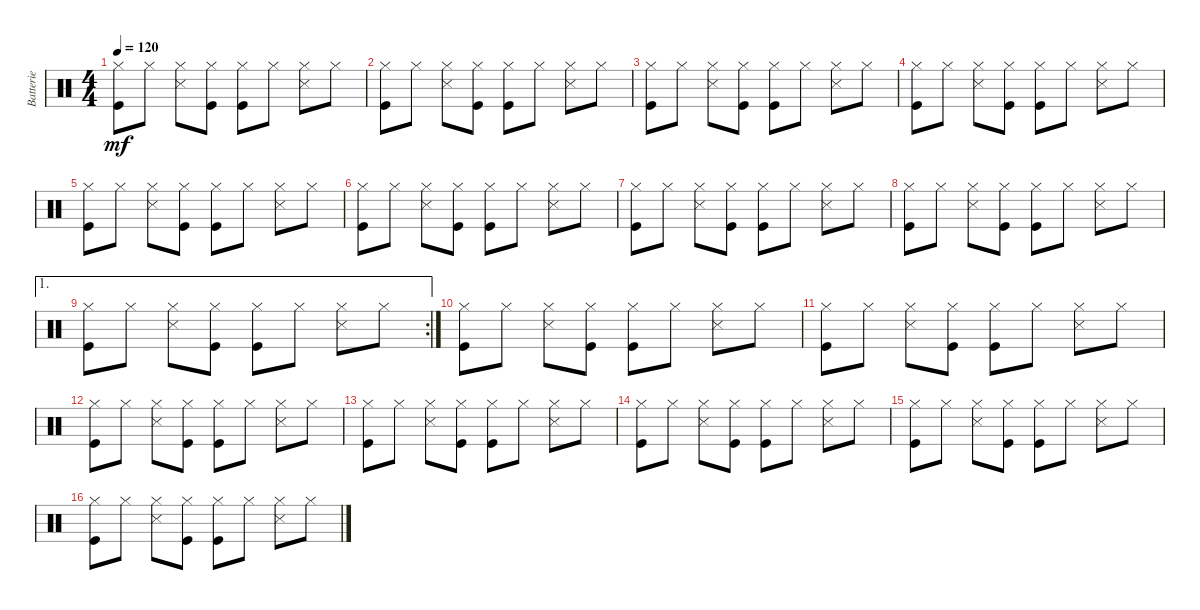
\track ("Batterie" "Batterie") {instrument percussion}
\staff {score}
\articulation defaults
\ts (4 4)
\tempo 120
\clef neutral
\ks c
("Hi-Hat (closed)" "Kick (hit)").8{dy mf} "Hi-Hat (closed)".8 ("Hi-Hat (closed)" "Snare (side stick) 3").8 ("Hi-Hat (closed)" "Kick (hit)").8 ("Hi-Hat (closed)" "Kick (hit)").8 "Hi-Hat (closed)".8 ("Hi-Hat (closed)" "Snare (side stick) 3").8 "Hi-Hat (closed)".8 |
("Hi-Hat (closed)" "Kick (hit)").8 "Hi-Hat (closed)".8 ("Hi-Hat (closed)" "Snare (side stick) 3").8 ("Hi-Hat (closed)" "Kick (hit)").8 ("Hi-Hat (closed)" "Kick (hit)").8 "Hi-Hat (closed)".8 ("Hi-Hat (closed)" "Snare (side stick) 3").8 "Hi-Hat (closed)".8 |
("Hi-Hat (closed)" "Kick (hit)").8 "Hi-Hat (closed)".8 ("Hi-Hat (closed)" "Snare (side stick) 3").8 ("Hi-Hat (closed)" "Kick (hit)").8 ("Hi-Hat (closed)" "Kick (hit)").8 "Hi-Hat (closed)".8 ("Hi-Hat (closed)" "Snare (side stick) 3").8 "Hi-Hat (closed)".8 |
("Hi-Hat (closed)" "Kick (hit)").8 "Hi-Hat (closed)".8 ("Hi-Hat (closed)" "Snare (side stick) 3").8 ("Hi-Hat (closed)" "Kick (hit)").8 ("Hi-Hat (closed)" "Kick (hit)").8 "Hi-Hat (closed)".8 ("Hi-Hat (closed)" "Snare (side stick) 3").8 "Hi-Hat (closed)".8 |
("Hi-Hat (closed)" "Kick (hit)").8 "Hi-Hat (closed)".8 ("Hi-Hat (closed)" "Snare (side stick) 3").8 ("Hi-Hat (closed)" "Kick (hit)").8 ("Hi-Hat (closed)" "Kick (hit)").8 "Hi-Hat (closed)".8 ("Hi-Hat (closed)" "Snare (side stick) 3").8 "Hi-Hat (closed)".8 |
("Hi-Hat (closed)" "Kick (hit)").8 "Hi-Hat (closed)".8 ("Hi-Hat (closed)" "Snare (side stick) 3").8 ("Hi-Hat (closed)" "Kick (hit)").8 ("Hi-Hat (closed)" "Kick (hit)").8 "Hi-Hat (closed)".8 ("Hi-Hat (closed)" "Snare (side stick) 3").8 "Hi-Hat (closed)".8 |
("Hi-Hat (closed)" "Kick (hit)").8 "Hi-Hat (closed)".8 ("Hi-Hat (closed)" "Snare (side stick) 3").8 ("Hi-Hat (closed)" "Kick (hit)").8 ("Hi-Hat (closed)" "Kick (hit)").8 "Hi-Hat (closed)".8 ("Hi-Hat (closed)" "Snare (side stick) 3").8 "Hi-Hat (closed)".8 |
("Hi-Hat (closed)" "Kick (hit)").8 "Hi-Hat (closed)".8 ("Hi-Hat (closed)" "Snare (side stick) 3").8 ("Hi-Hat (closed)" "Kick (hit)").8 ("Hi-Hat (closed)" "Kick (hit)").8 "Hi-Hat (closed)".8 ("Hi-Hat (closed)" "Snare (side stick) 3").8 "Hi-Hat (closed)".8 |
\ae 1
\rc 2
("Hi-Hat (closed)" "Kick (hit)").8 "Hi-Hat (closed)".8 ("Hi-Hat (closed)" "Snare (side stick) 3").8 ("Hi-Hat (closed)" "Kick (hit)").8 ("Hi-Hat (closed)" "Kick (hit)").8 "Hi-Hat (closed)".8 ("Hi-Hat (closed)" "Snare (side stick) 3").8 "Hi-Hat (closed)".8 |
("Hi-Hat (closed)" "Kick (hit)").8 "Hi-Hat (closed)".8 ("Hi-Hat (closed)" "Snare (side stick) 3").8 ("Hi-Hat (closed)" "Kick (hit)").8 ("Hi-Hat (closed)" "Kick (hit)").8 "Hi-Hat (closed)".8 ("Hi-Hat (closed)" "Snare (side stick) 3").8 "Hi-Hat (closed)".8 |
("Hi-Hat (closed)" "Kick (hit)").8 "Hi-Hat (closed)".8 ("Hi-Hat (closed)" "Snare (side stick) 3").8 ("Hi-Hat (closed)" "Kick (hit)").8 ("Hi-Hat (closed)" "Kick (hit)").8 "Hi-Hat (closed)".8 ("Hi-Hat (closed)" "Snare (side stick) 3").8 "Hi-Hat (closed)".8 |
("Hi-Hat (closed)" "Kick (hit)").8 "Hi-Hat (closed)".8 ("Hi-Hat (closed)" "Snare (side stick) 3").8 ("Hi-Hat (closed)" "Kick (hit)").8 ("Hi-Hat (closed)" "Kick (hit)").8 "Hi-Hat (closed)".8 ("Hi-Hat (closed)" "Snare (side stick) 3").8 "Hi-Hat (closed)".8 |
("Hi-Hat (closed)" "Kick (hit)").8 "Hi-Hat (closed)".8 ("Hi-Hat (closed)" "Snare (side stick) 3").8 ("Hi-Hat (closed)" "Kick (hit)").8 ("Hi-Hat (closed)" "Kick (hit)").8 "Hi-Hat (closed)".8 ("Hi-Hat (closed)" "Snare (side stick) 3").8 "Hi-Hat (closed)".8 |
("Hi-Hat (closed)" "Kick (hit)").8 "Hi-Hat (closed)".8 ("Hi-Hat (closed)" "Snare (side stick) 3").8 ("Hi-Hat (closed)" "Kick (hit)").8 ("Hi-Hat (closed)" "Kick (hit)").8 "Hi-Hat (closed)".8 ("Hi-Hat (closed)" "Snare (side stick) 3").8 "Hi-Hat (closed)".8 |
("Hi-Hat (closed)" "Kick (hit)").8 "Hi-Hat (closed)".8 ("Hi-Hat (closed)" "Snare (side stick) 3").8 ("Hi-Hat (closed)" "Kick (hit)").8 ("Hi-Hat (closed)" "Kick (hit)").8 "Hi-Hat (closed)".8 ("Hi-Hat (closed)" "Snare (side stick) 3").8 "Hi-Hat (closed)".8 |
("Hi-Hat (closed)" "Kick (hit)").8 "Hi-Hat (closed)".8 ("Hi-Hat (closed)" "Snare (side stick) 3").8 ("Hi-Hat (closed)" "Kick (hit)").8 ("Hi-Hat (closed)" "Kick (hit)").8 "Hi-Hat (closed)".8 ("Hi-Hat (closed)" "Snare (side stick) 3").8 "Hi-Hat (closed)".8
